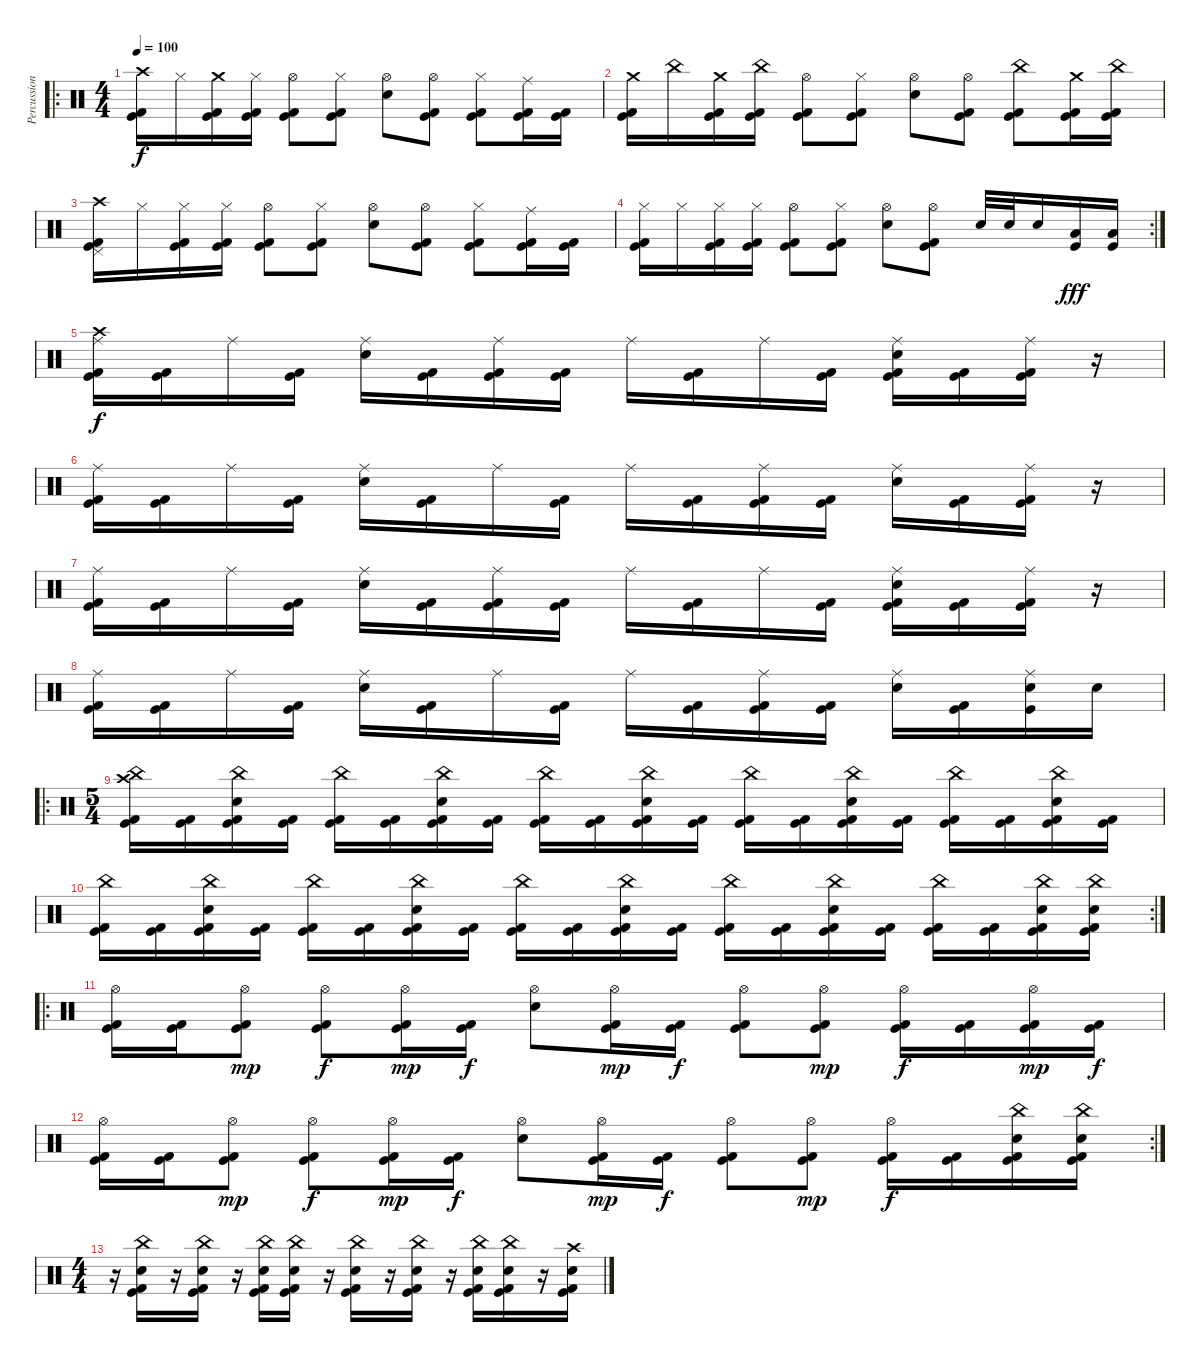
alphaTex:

\track ("Percussion" "Percussion") {instrument percussion}
\staff {score}
\articulation defaults
\ro
\ts (4 4)
\tempo 100
\clef neutral
\ks c
("Crash high (hit)" "Kick (hit) 2" "Kick (hit)").16{dy f} "Hi-Hat (closed)".16 ("Crash medium (hit)" "Kick (hit) 2" "Kick (hit)").16 ("Hi-Hat (closed)" "Kick (hit) 2" "Kick (hit)").16 ("Hi-Hat (open)" "Kick (hit) 2" "Kick (hit)").8 ("Hi-Hat (closed)" "Kick (hit) 2" "Kick (hit)").8 ("Hi-Hat (open)" "Snare (hit) 2").8 ("Hi-Hat (open)" "Kick (hit) 2" "Kick (hit)").8 ("Hi-Hat (closed)" "Kick (hit) 2" "Kick (hit)").8 ("Ride (middle)" "Kick (hit) 2" "Kick (hit)").16 ("Kick (hit) 2" "Kick (hit)").16 |
("Crash medium (hit)" "Kick (hit) 2" "Kick (hit)").16 "China (hit)".16 ("Crash medium (hit)" "Kick (hit) 2" "Kick (hit)").16 ("China (hit)" "Kick (hit) 2" "Kick (hit)").16 ("Hi-Hat (open)" "Kick (hit) 2" "Kick (hit)").8 ("Hi-Hat (closed)" "Kick (hit) 2" "Kick (hit)").8 ("Hi-Hat (open)" "Snare (hit) 2").8 ("Hi-Hat (open)" "Kick (hit) 2" "Kick (hit)").8 ("China (hit)" "Kick (hit) 2" "Kick (hit)").8 ("Crash medium (hit)" "Kick (hit) 2" "Kick (hit)").16 ("China (hit)" "Kick (hit) 2" "Kick (hit)").16 |
("Pedal Hi-Hat (hit)" "Crash high (hit)" "Kick (hit) 2" "Kick (hit)").16 "Hi-Hat (closed)".16 ("Hi-Hat (closed)" "Kick (hit) 2" "Kick (hit)").16 ("Hi-Hat (closed)" "Kick (hit) 2" "Kick (hit)").16 ("Hi-Hat (open)" "Kick (hit) 2" "Kick (hit)").8 ("Hi-Hat (closed)" "Kick (hit) 2" "Kick (hit)").8 ("Hi-Hat (open)" "Snare (hit) 2").8 ("Hi-Hat (open)" "Kick (hit) 2" "Kick (hit)").8 ("Hi-Hat (closed)" "Kick (hit) 2" "Kick (hit)").8 ("Ride (middle)" "Kick (hit) 2" "Kick (hit)").16 ("Kick (hit) 2" "Kick (hit)").16 |
\rc 2
("Hi-Hat (closed)" "Kick (hit) 2" "Kick (hit)").16 "Hi-Hat (closed)".16 ("Hi-Hat (closed)" "Kick (hit) 2" "Kick (hit)").16 ("Hi-Hat (closed)" "Kick (hit) 2" "Kick (hit)").16 ("Hi-Hat (open)" "Kick (hit) 2" "Kick (hit)").8 ("Hi-Hat (closed)" "Kick (hit) 2" "Kick (hit)").8 ("Hi-Hat (open)" "Snare (hit) 2").8 ("Hi-Hat (open)" "Kick (hit) 2" "Kick (hit)").8 "Snare (hit) 2".32 "Snare (hit) 2".32 "Snare (hit) 2".16 ("Low Tom (hit)" "Kick (hit)").16{dy fff} ("Low Tom (hit)" "Kick (hit)").16 |
("Ride (middle)" "Crash high (hit)" "Kick (hit) 2" "Kick (hit)").16{dy f} ("Kick (hit) 2" "Kick (hit)").16 "Ride (middle)".16 ("Kick (hit) 2" "Kick (hit)").16 ("Ride (middle)" "Snare (hit) 2").16 ("Kick (hit) 2" "Kick (hit)").16 ("Ride (middle)" "Kick (hit) 2" "Kick (hit)").16 ("Kick (hit) 2" "Kick (hit)").16 "Ride (middle)".16 ("Kick (hit) 2" "Kick (hit)").16 "Ride (middle)".16 ("Kick (hit) 2" "Kick (hit)").16 ("Ride (middle)" "Snare (hit) 2" "Kick (hit) 2" "Kick (hit)").16 ("Kick (hit) 2" "Kick (hit)").16 ("Ride (middle)" "Kick (hit) 2" "Kick (hit)").16 r.16 |
("Ride (middle)" "Kick (hit) 2" "Kick (hit)").16 ("Kick (hit) 2" "Kick (hit)").16 "Ride (middle)".16 ("Kick (hit) 2" "Kick (hit)").16 ("Ride (middle)" "Snare (hit) 2").16 ("Kick (hit) 2" "Kick (hit)").16 "Ride (middle)".16 ("Kick (hit) 2" "Kick (hit)").16 "Ride (middle)".16 ("Kick (hit) 2" "Kick (hit)").16 ("Ride (middle)" "Kick (hit) 2" "Kick (hit)").16 ("Kick (hit) 2" "Kick (hit)").16 ("Ride (middle)" "Snare (hit) 2").16 ("Kick (hit) 2" "Kick (hit)").16 ("Ride (middle)" "Kick (hit) 2" "Kick (hit)").16 r.16 |
("Ride (middle)" "Kick (hit) 2" "Kick (hit)").16 ("Kick (hit) 2" "Kick (hit)").16 "Ride (middle)".16 ("Kick (hit) 2" "Kick (hit)").16 ("Ride (middle)" "Snare (hit) 2").16 ("Kick (hit) 2" "Kick (hit)").16 ("Ride (middle)" "Kick (hit) 2" "Kick (hit)").16 ("Kick (hit) 2" "Kick (hit)").16 "Ride (middle)".16 ("Kick (hit) 2" "Kick (hit)").16 "Ride (middle)".16 ("Kick (hit) 2" "Kick (hit)").16 ("Ride (middle)" "Snare (hit) 2" "Kick (hit) 2" "Kick (hit)").16 ("Kick (hit) 2" "Kick (hit)").16 ("Ride (middle)" "Kick (hit) 2" "Kick (hit)").16 r.16 |
("Ride (middle)" "Kick (hit) 2" "Kick (hit)").16 ("Kick (hit) 2" "Kick (hit)").16 "Ride (middle)".16 ("Kick (hit) 2" "Kick (hit)").16 ("Ride (middle)" "Snare (hit) 2").16 ("Kick (hit) 2" "Kick (hit)").16 "Ride (middle)".16 ("Kick (hit) 2" "Kick (hit)").16 "Ride (middle)".16 ("Kick (hit) 2" "Kick (hit)").16 ("Ride (middle)" "Kick (hit) 2" "Kick (hit)").16 ("Kick (hit) 2" "Kick (hit)").16 ("Ride (middle)" "Snare (hit) 2").16 ("Kick (hit) 2" "Kick (hit)").16 ("Ride (middle)" "Snare (hit) 2" "Kick (hit)").16 "Snare (hit) 2".16 |
\ro
\ts (5 4)
("China (hit)" "Crash high (hit)" "Kick (hit) 2" "Kick (hit)").16 ("Kick (hit) 2" "Kick (hit)").16 ("China (hit)" "Snare (hit) 2" "Kick (hit) 2" "Kick (hit)").16 ("Kick (hit) 2" "Kick (hit)").16 ("China (hit)" "Kick (hit) 2" "Kick (hit)").16 ("Kick (hit) 2" "Kick (hit)").16 ("China (hit)" "Snare (hit) 2" "Kick (hit) 2" "Kick (hit)").16 ("Kick (hit) 2" "Kick (hit)").16 ("China (hit)" "Kick (hit) 2" "Kick (hit)").16 ("Kick (hit) 2" "Kick (hit)").16 ("China (hit)" "Snare (hit) 2" "Kick (hit) 2" "Kick (hit)").16 ("Kick (hit) 2" "Kick (hit)").16 ("China (hit)" "Kick (hit) 2" "Kick (hit)").16 ("Kick (hit) 2" "Kick (hit)").16 ("China (hit)" "Snare (hit) 2" "Kick (hit) 2" "Kick (hit)").16 ("Kick (hit) 2" "Kick (hit)").16 ("China (hit)" "Kick (hit) 2" "Kick (hit)").16 ("Kick (hit) 2" "Kick (hit)").16 ("China (hit)" "Snare (hit) 2" "Kick (hit) 2" "Kick (hit)").16 ("Kick (hit) 2" "Kick (hit)").16 |
\rc 2
("China (hit)" "Kick (hit) 2" "Kick (hit)").16 ("Kick (hit) 2" "Kick (hit)").16 ("China (hit)" "Snare (hit) 2" "Kick (hit) 2" "Kick (hit)").16 ("Kick (hit) 2" "Kick (hit)").16 ("China (hit)" "Kick (hit) 2" "Kick (hit)").16 ("Kick (hit) 2" "Kick (hit)").16 ("China (hit)" "Snare (hit) 2" "Kick (hit) 2" "Kick (hit)").16 ("Kick (hit) 2" "Kick (hit)").16 ("China (hit)" "Kick (hit) 2" "Kick (hit)").16 ("Kick (hit) 2" "Kick (hit)").16 ("China (hit)" "Snare (hit) 2" "Kick (hit) 2" "Kick (hit)").16 ("Kick (hit) 2" "Kick (hit)").16 ("China (hit)" "Kick (hit) 2" "Kick (hit)").16 ("Kick (hit) 2" "Kick (hit)").16 ("China (hit)" "Snare (hit) 2" "Kick (hit) 2" "Kick (hit)").16 ("Kick (hit) 2" "Kick (hit)").16 ("China (hit)" "Kick (hit) 2" "Kick (hit)").16 ("Kick (hit) 2" "Kick (hit)").16 ("China (hit)" "Snare (hit) 2" "Kick (hit) 2" "Kick (hit)").16 ("China (hit)" "Snare (hit) 2" "Kick (hit) 2" "Kick (hit)").16 |
\ro
("Hi-Hat (open)" "Kick (hit) 2" "Kick (hit)").16 ("Kick (hit) 2" "Kick (hit)").16 ("Hi-Hat (open)" "Kick (hit) 2" "Kick (hit)").8{dy mp} ("Hi-Hat (open)" "Kick (hit) 2" "Kick (hit)").8{dy f} ("Hi-Hat (open)" "Kick (hit) 2" "Kick (hit)").16{dy mp} ("Kick (hit) 2" "Kick (hit)").16{dy f} ("Hi-Hat (open)" "Snare (hit) 2").8 ("Hi-Hat (open)" "Kick (hit) 2" "Kick (hit)").16{dy mp} ("Kick (hit) 2" "Kick (hit)").16{dy f} ("Hi-Hat (open)" "Kick (hit) 2" "Kick (hit)").8 ("Hi-Hat (open)" "Kick (hit) 2" "Kick (hit)").8{dy mp} ("Hi-Hat (open)" "Kick (hit) 2" "Kick (hit)").16{dy f} ("Kick (hit) 2" "Kick (hit)").16 ("Hi-Hat (open)" "Kick (hit) 2" "Kick (hit)").16{dy mp} ("Kick (hit) 2" "Kick (hit)").16{dy f} |
\rc 2
("Hi-Hat (open)" "Kick (hit) 2" "Kick (hit)").16 ("Kick (hit) 2" "Kick (hit)").16 ("Hi-Hat (open)" "Kick (hit) 2" "Kick (hit)").8{dy mp} ("Hi-Hat (open)" "Kick (hit) 2" "Kick (hit)").8{dy f} ("Hi-Hat (open)" "Kick (hit) 2" "Kick (hit)").16{dy mp} ("Kick (hit) 2" "Kick (hit)").16{dy f} ("Hi-Hat (open)" "Snare (hit) 2").8 ("Hi-Hat (open)" "Kick (hit) 2" "Kick (hit)").16{dy mp} ("Kick (hit) 2" "Kick (hit)").16{dy f} ("Hi-Hat (open)" "Kick (hit) 2" "Kick (hit)").8 ("Hi-Hat (open)" "Kick (hit) 2" "Kick (hit)").8{dy mp} ("Hi-Hat (open)" "Kick (hit) 2" "Kick (hit)").16{dy f} ("Kick (hit) 2" "Kick (hit)").16 ("China (hit)" "Snare (hit) 2" "Kick (hit) 2" "Kick (hit)").16 ("China (hit)" "Snare (hit) 2" "Kick (hit) 2" "Kick (hit)").16 |
\ts (4 4)
r.16 ("China (hit)" "Snare (hit) 2" "Kick (hit) 2" "Kick (hit)").16 r.16 ("China (hit)" "Snare (hit) 2" "Kick (hit) 2" "Kick (hit)").16 r.16 ("China (hit)" "Snare (hit) 2" "Kick (hit) 2" "Kick (hit)").16 ("China (hit)" "Snare (hit) 2" "Kick (hit) 2" "Kick (hit)").16 r.16 ("China (hit)" "Snare (hit) 2" "Kick (hit) 2" "Kick (hit)").16 r.16 ("China (hit)" "Snare (hit) 2" "Kick (hit) 2" "Kick (hit)").16 r.16 ("China (hit)" "Snare (hit) 2" "Kick (hit) 2" "Kick (hit)").16 ("China (hit)" "Snare (hit) 2" "Kick (hit) 2" "Kick (hit)").16 r.16 ("Crash high (hit)" "Snare (hit) 2" "Kick (hit) 2" "Kick (hit)").16
